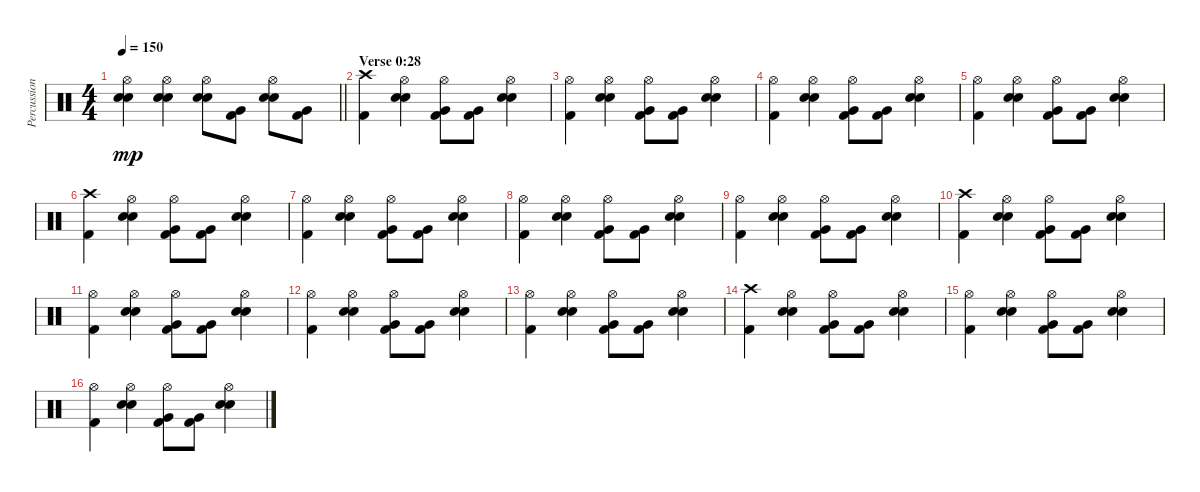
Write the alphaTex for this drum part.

\track ("Percussion" "Percussion") {instrument percussion}
\staff {score}
\articulation defaults
\ts (4 4)
\tempo 150
\clef neutral
\barLineRight lightlight
\ks c
("Electric Snare (hit)" "Snare (hit) 2" "Hi-Hat (open)").4{dy mp} ("Electric Snare (hit)" "Snare (hit) 2" "Hi-Hat (open)").4 ("Electric Snare (hit)" "Snare (hit) 2" "Hi-Hat (open)").8 ("Kick (hit) 2" "Very Low Tom (hit)").8 ("Electric Snare (hit)" "Snare (hit) 2" "Hi-Hat (open)").8 ("Kick (hit) 2" "Very Low Tom (hit)").8 |
\section ("" "Verse 0:28")
("Kick (hit) 2" "Crash high (hit)").4 ("Electric Snare (hit)" "Snare (hit) 2" "Hi-Hat (open)").4 ("Kick (hit) 2" "Very Low Tom (hit)" "Hi-Hat (open)").8 ("Kick (hit) 2" "Very Low Tom (hit)").8 ("Electric Snare (hit)" "Snare (hit) 2" "Hi-Hat (open)").4 |
("Kick (hit) 2" "Hi-Hat (open)").4 ("Electric Snare (hit)" "Snare (hit) 2" "Hi-Hat (open)").4 ("Kick (hit) 2" "Very Low Tom (hit)" "Hi-Hat (open)").8 ("Kick (hit) 2" "Very Low Tom (hit)").8 ("Electric Snare (hit)" "Snare (hit) 2" "Hi-Hat (open)").4 |
("Kick (hit) 2" "Hi-Hat (open)").4 ("Electric Snare (hit)" "Snare (hit) 2" "Hi-Hat (open)").4 ("Kick (hit) 2" "Very Low Tom (hit)" "Hi-Hat (open)").8 ("Kick (hit) 2" "Very Low Tom (hit)").8 ("Electric Snare (hit)" "Snare (hit) 2" "Hi-Hat (open)").4 |
("Kick (hit) 2" "Hi-Hat (open)").4 ("Electric Snare (hit)" "Snare (hit) 2" "Hi-Hat (open)").4 ("Kick (hit) 2" "Very Low Tom (hit)" "Hi-Hat (open)").8 ("Kick (hit) 2" "Very Low Tom (hit)").8 ("Electric Snare (hit)" "Snare (hit) 2" "Hi-Hat (open)").4 |
("Kick (hit) 2" "Crash high (hit)").4 ("Electric Snare (hit)" "Snare (hit) 2" "Hi-Hat (open)").4 ("Kick (hit) 2" "Very Low Tom (hit)" "Hi-Hat (open)").8 ("Kick (hit) 2" "Very Low Tom (hit)").8 ("Electric Snare (hit)" "Snare (hit) 2" "Hi-Hat (open)").4 |
("Kick (hit) 2" "Hi-Hat (open)").4 ("Electric Snare (hit)" "Snare (hit) 2" "Hi-Hat (open)").4 ("Kick (hit) 2" "Very Low Tom (hit)" "Hi-Hat (open)").8 ("Kick (hit) 2" "Very Low Tom (hit)").8 ("Electric Snare (hit)" "Snare (hit) 2" "Hi-Hat (open)").4 |
("Kick (hit) 2" "Hi-Hat (open)").4 ("Electric Snare (hit)" "Snare (hit) 2" "Hi-Hat (open)").4 ("Kick (hit) 2" "Very Low Tom (hit)" "Hi-Hat (open)").8 ("Kick (hit) 2" "Very Low Tom (hit)").8 ("Electric Snare (hit)" "Snare (hit) 2" "Hi-Hat (open)").4 |
("Kick (hit) 2" "Hi-Hat (open)").4 ("Electric Snare (hit)" "Snare (hit) 2" "Hi-Hat (open)").4 ("Kick (hit) 2" "Very Low Tom (hit)" "Hi-Hat (open)").8 ("Kick (hit) 2" "Very Low Tom (hit)").8 ("Electric Snare (hit)" "Snare (hit) 2" "Hi-Hat (open)").4 |
("Kick (hit) 2" "Crash high (hit)").4 ("Electric Snare (hit)" "Snare (hit) 2" "Hi-Hat (open)").4 ("Kick (hit) 2" "Very Low Tom (hit)" "Hi-Hat (open)").8 ("Kick (hit) 2" "Very Low Tom (hit)").8 ("Electric Snare (hit)" "Snare (hit) 2" "Hi-Hat (open)").4 |
("Kick (hit) 2" "Hi-Hat (open)").4 ("Electric Snare (hit)" "Snare (hit) 2" "Hi-Hat (open)").4 ("Kick (hit) 2" "Very Low Tom (hit)" "Hi-Hat (open)").8 ("Kick (hit) 2" "Very Low Tom (hit)").8 ("Electric Snare (hit)" "Snare (hit) 2" "Hi-Hat (open)").4 |
("Kick (hit) 2" "Hi-Hat (open)").4 ("Electric Snare (hit)" "Snare (hit) 2" "Hi-Hat (open)").4 ("Kick (hit) 2" "Very Low Tom (hit)" "Hi-Hat (open)").8 ("Kick (hit) 2" "Very Low Tom (hit)").8 ("Electric Snare (hit)" "Snare (hit) 2" "Hi-Hat (open)").4 |
("Kick (hit) 2" "Hi-Hat (open)").4 ("Electric Snare (hit)" "Snare (hit) 2" "Hi-Hat (open)").4 ("Kick (hit) 2" "Very Low Tom (hit)" "Hi-Hat (open)").8 ("Kick (hit) 2" "Very Low Tom (hit)").8 ("Electric Snare (hit)" "Snare (hit) 2" "Hi-Hat (open)").4 |
("Kick (hit) 2" "Crash high (hit)").4 ("Electric Snare (hit)" "Snare (hit) 2" "Hi-Hat (open)").4 ("Kick (hit) 2" "Very Low Tom (hit)" "Hi-Hat (open)").8 ("Kick (hit) 2" "Very Low Tom (hit)").8 ("Electric Snare (hit)" "Snare (hit) 2" "Hi-Hat (open)").4 |
("Kick (hit) 2" "Hi-Hat (open)").4 ("Electric Snare (hit)" "Snare (hit) 2" "Hi-Hat (open)").4 ("Kick (hit) 2" "Very Low Tom (hit)" "Hi-Hat (open)").8 ("Kick (hit) 2" "Very Low Tom (hit)").8 ("Electric Snare (hit)" "Snare (hit) 2" "Hi-Hat (open)").4 |
("Kick (hit) 2" "Hi-Hat (open)").4 ("Electric Snare (hit)" "Snare (hit) 2" "Hi-Hat (open)").4 ("Kick (hit) 2" "Very Low Tom (hit)" "Hi-Hat (open)").8 ("Kick (hit) 2" "Very Low Tom (hit)").8 ("Electric Snare (hit)" "Snare (hit) 2" "Hi-Hat (open)").4
